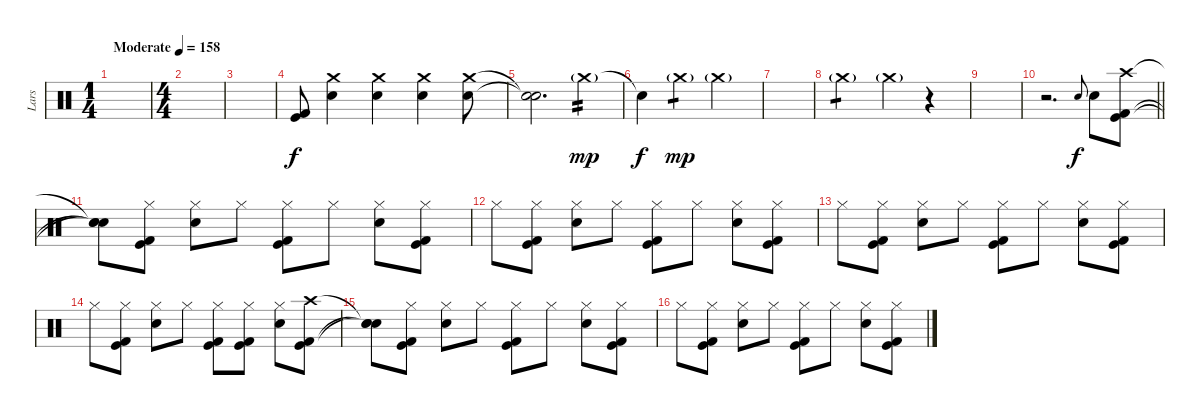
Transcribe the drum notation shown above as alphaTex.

\track ("Lars" "Lars") {instrument percussion}
\staff {score}
\articulation defaults
\ts (1 4)
\tempo (158 "Moderate")
\clef neutral
\ks c
|
\ts (4 4)
|
|
("Kick (hit)" "Kick (hit) 2").8 ("Crash medium (hit)" "Electric Snare (hit)").4 ("Crash medium (hit)" "Electric Snare (hit)").4 ("Crash medium (hit)" "Electric Snare (hit)").4 ("Crash medium (hit)" "Electric Snare (hit)").8 |
("Snare (hit)"{t} "Snare (hit)"{t}).2{d} "Crash medium (hit)"{g}.4{tp 2 dy mp} |
"Snare (hit)"{t}.4{dy f} "Crash medium (hit)"{g}.4{tp 1 dy mp} "Crash medium (hit)"{g}.2 |
|
"Crash medium (hit)"{g}.2{tp 1} "Crash medium (hit)"{g}.4 r.4 |
|
\barLineRight lightlight
r.2{d} "Electric Snare (hit)".8{gr onbeat dy f} "Electric Snare (hit)".8 ("Crash high (hit)" "Kick (hit)" "Kick (hit) 2").8 |
\section ("" "")
("Snare (hit)"{t} "Snare (hit)"{t} "Snare (hit)"{t}).8 ("Hi-Hat (closed)" "Kick (hit)" "Kick (hit) 2").8 ("Hi-Hat (closed)" "Electric Snare (hit)").8 "Hi-Hat (closed)".8 ("Hi-Hat (closed)" "Kick (hit)" "Kick (hit) 2").8 "Hi-Hat (closed)".8 ("Hi-Hat (closed)" "Electric Snare (hit)").8 ("Hi-Hat (closed)" "Kick (hit)" "Kick (hit) 2").8 |
"Hi-Hat (closed)".8 ("Hi-Hat (closed)" "Kick (hit)" "Kick (hit) 2").8 ("Hi-Hat (closed)" "Electric Snare (hit)").8 "Hi-Hat (closed)".8 ("Hi-Hat (closed)" "Kick (hit)" "Kick (hit) 2").8 "Hi-Hat (closed)".8 ("Hi-Hat (closed)" "Electric Snare (hit)").8 ("Hi-Hat (closed)" "Kick (hit)" "Kick (hit) 2").8 |
"Hi-Hat (closed)".8 ("Hi-Hat (closed)" "Kick (hit)" "Kick (hit) 2").8 ("Hi-Hat (closed)" "Electric Snare (hit)").8 "Hi-Hat (closed)".8 ("Hi-Hat (closed)" "Kick (hit)" "Kick (hit) 2").8 "Hi-Hat (closed)".8 ("Hi-Hat (closed)" "Electric Snare (hit)").8 ("Hi-Hat (closed)" "Kick (hit)" "Kick (hit) 2").8 |
"Hi-Hat (closed)".8 ("Hi-Hat (closed)" "Kick (hit)" "Kick (hit) 2").8 ("Hi-Hat (closed)" "Electric Snare (hit)").8 "Hi-Hat (closed)".8 ("Hi-Hat (closed)" "Kick (hit)" "Kick (hit) 2").8 ("Hi-Hat (closed)" "Kick (hit)" "Kick (hit) 2").8 ("Hi-Hat (closed)" "Electric Snare (hit)").8 ("Crash high (hit)" "Kick (hit)" "Kick (hit) 2").8 |
("Snare (hit)"{t} "Snare (hit)"{t} "Snare (hit)"{t}).8 ("Hi-Hat (closed)" "Kick (hit)" "Kick (hit) 2").8 ("Hi-Hat (closed)" "Electric Snare (hit)").8 "Hi-Hat (closed)".8 ("Hi-Hat (closed)" "Kick (hit)" "Kick (hit) 2").8 "Hi-Hat (closed)".8 ("Hi-Hat (closed)" "Electric Snare (hit)").8 ("Hi-Hat (closed)" "Kick (hit)" "Kick (hit) 2").8 |
"Hi-Hat (closed)".8 ("Hi-Hat (closed)" "Kick (hit)" "Kick (hit) 2").8 ("Hi-Hat (closed)" "Electric Snare (hit)").8 "Hi-Hat (closed)".8 ("Hi-Hat (closed)" "Kick (hit)" "Kick (hit) 2").8 "Hi-Hat (closed)".8 ("Hi-Hat (closed)" "Electric Snare (hit)").8 ("Hi-Hat (closed)" "Kick (hit)" "Kick (hit) 2").8
